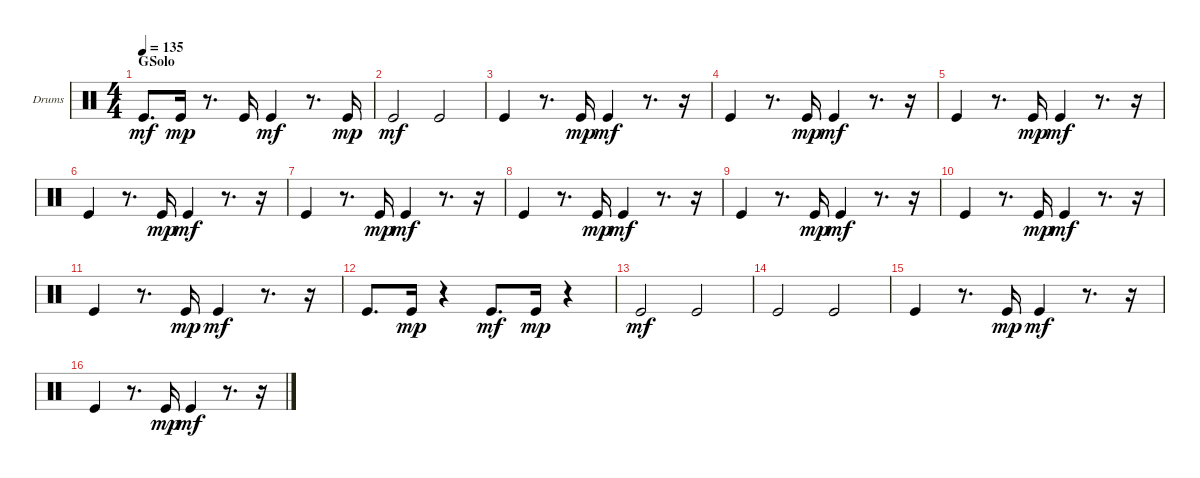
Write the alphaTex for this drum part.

\bracketExtendMode groupsimilarinstruments
\firstSystemTrackNameOrientation horizontal
\otherSystemsTrackNameOrientation horizontal
\track ("Kick" "Drums") {instrument percussion}
\staff {score}
\articulation defaults
\ts (4 4)
\section ("" "GSolo")
\tempo 135
\clef neutral
\ks c "Kick (hit)".8{d dy mf} "Kick (hit)".16{dy mp}
r.8{d} "Kick (hit)".16 "Kick (hit)".4{dy mf} r.8{d} "Kick (hit)".16{dy mp} |
"Kick (hit)".2{dy mf} "Kick (hit)".2 |
"Kick (hit)".4 r.8{d} "Kick (hit)".16{dy mp} "Kick (hit)".4{dy mf} r.8{d} r.16 |
"Kick (hit)".4 r.8{d} "Kick (hit)".16{dy mp} "Kick (hit)".4{dy mf} r.8{d} r.16 |
"Kick (hit)".4 r.8{d} "Kick (hit)".16{dy mp} "Kick (hit)".4{dy mf} r.8{d} r.16 |
"Kick (hit)".4 r.8{d} "Kick (hit)".16{dy mp} "Kick (hit)".4{dy mf} r.8{d} r.16 |
"Kick (hit)".4 r.8{d} "Kick (hit)".16{dy mp} "Kick (hit)".4{dy mf} r.8{d} r.16 |
"Kick (hit)".4 r.8{d} "Kick (hit)".16{dy mp} "Kick (hit)".4{dy mf} r.8{d} r.16 |
"Kick (hit)".4 r.8{d} "Kick (hit)".16{dy mp} "Kick (hit)".4{dy mf} r.8{d} r.16 |
"Kick (hit)".4 r.8{d} "Kick (hit)".16{dy mp} "Kick (hit)".4{dy mf} r.8{d} r.16 |
"Kick (hit)".4 r.8{d} "Kick (hit)".16{dy mp} "Kick (hit)".4{dy mf} r.8{d} r.16 |
"Kick (hit)".8{d} "Kick (hit)".16{dy mp} r.4 "Kick (hit)".8{d dy mf} "Kick (hit)".16{dy mp} r.4 |
"Kick (hit)".2{dy mf} "Kick (hit)".2 |
"Kick (hit)".2 "Kick (hit)".2 |
"Kick (hit)".4 r.8{d} "Kick (hit)".16{dy mp} "Kick (hit)".4{dy mf} r.8{d} r.16 |
"Kick (hit)".4 r.8{d} "Kick (hit)".16{dy mp} "Kick (hit)".4{dy mf} r.8{d} r.16
